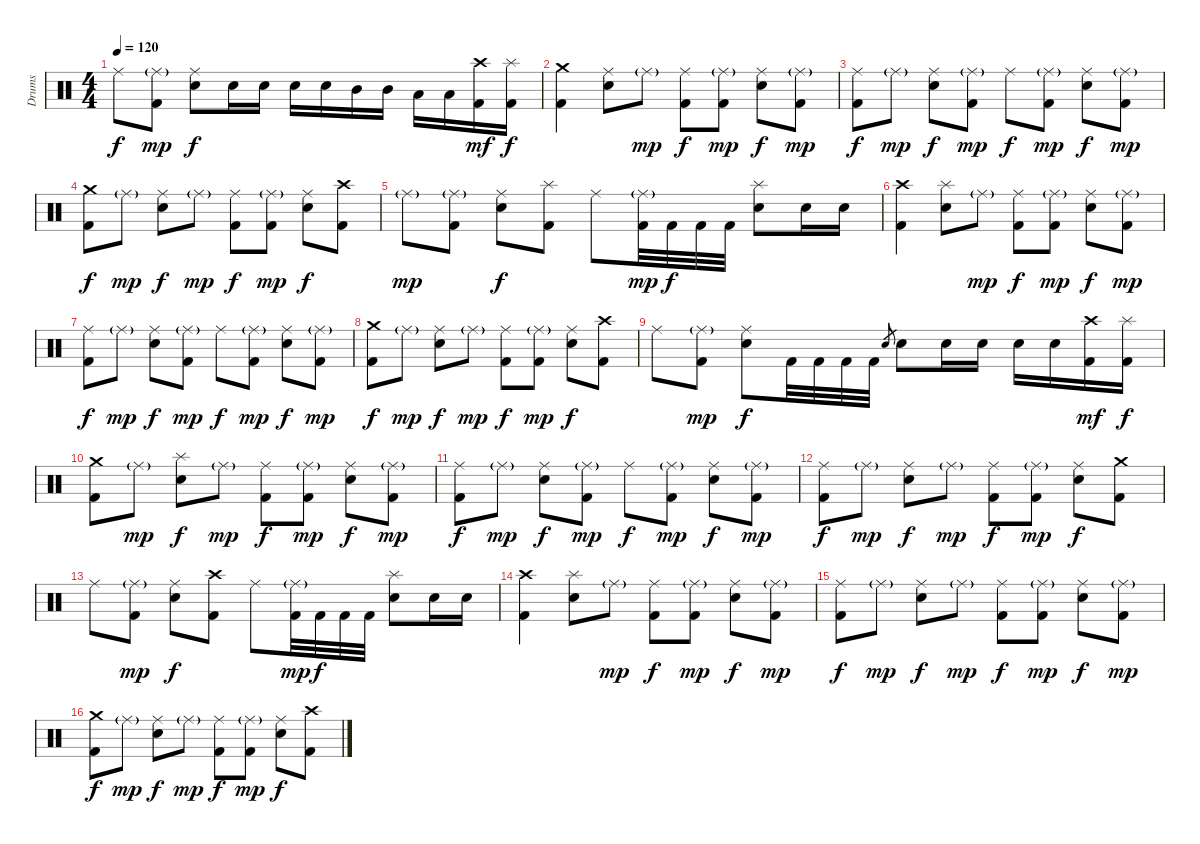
\track ("Drums" "Drums") {instrument percussion}
\staff {score}
\articulation defaults
\ts (4 4)
\tempo 120
\clef neutral
\ks c "Ride (middle)".8{dy f}
("Ride (middle)"{g} "Kick (hit) 2").8{dy mp} ("Ride (middle)" "Snare (hit) 2").8{dy f} "Snare (hit) 2".16 "Snare (hit) 2".16 "Snare (hit) 2".16 "Snare (hit) 2".16 "Mid Tom (hit)".16 "Mid Tom (hit)".16 "Low Tom (hit)".16 "Low Tom (hit)".16 ("Crash high (hit)" "Kick (hit) 2").16{dy mf} ("Splash (hit)" "Kick (hit) 2").16{dy f} |
("Crash medium (hit)" "Kick (hit) 2").4 ("Ride (middle)" "Snare (hit) 2").8 "Ride (middle)"{g}.8{dy mp} ("Ride (middle)" "Kick (hit) 2").8{dy f} ("Ride (middle)"{g} "Kick (hit) 2").8{dy mp} ("Ride (middle)" "Snare (hit) 2").8{dy f} ("Ride (middle)"{g} "Kick (hit) 2").8{dy mp} |
("Ride (middle)" "Kick (hit) 2").8{dy f} "Ride (middle)"{g}.8{dy mp} ("Ride (middle)" "Snare (hit) 2").8{dy f} ("Ride (middle)"{g} "Kick (hit) 2").8{dy mp} "Ride (middle)".8{dy f} ("Ride (middle)"{g} "Kick (hit) 2").8{dy mp} ("Ride (middle)" "Snare (hit) 2").8{dy f} ("Ride (middle)"{g} "Kick (hit) 2").8{dy mp} |
("Crash medium (hit)" "Kick (hit) 2").8{dy f} "Ride (middle)"{g}.8{dy mp} ("Ride (middle)" "Snare (hit) 2").8{dy f} "Ride (middle)"{g}.8{dy mp} ("Ride (middle)" "Kick (hit) 2").8{dy f} ("Ride (middle)"{g} "Kick (hit) 2").8{dy mp} ("Ride (middle)" "Snare (hit) 2").8{dy f} ("Crash high (hit)" "Kick (hit) 2").8 |
"Ride (middle)"{g}.8{dy mp} ("Ride (middle)"{g} "Kick (hit) 2").8 ("Ride (middle)" "Snare (hit) 2").8{dy f} ("Splash (hit)" "Kick (hit) 2").8 "Ride (middle)".8 ("Ride (middle)"{g} "Kick (hit) 2").32{dy mp} "Kick (hit) 2".32{dy f} "Kick (hit) 2".32 "Kick (hit) 2".32 ("Splash (hit)" "Snare (hit) 2").8 "Snare (hit) 2".16 "Snare (hit) 2".16 |
("Crash high (hit)" "Kick (hit) 2").4 ("Splash (hit)" "Snare (hit) 2").8 "Ride (middle)"{g}.8{dy mp} ("Ride (middle)" "Kick (hit) 2").8{dy f} ("Ride (middle)"{g} "Kick (hit) 2").8{dy mp} ("Ride (middle)" "Snare (hit) 2").8{dy f} ("Ride (middle)"{g} "Kick (hit) 2").8{dy mp} |
("Ride (middle)" "Kick (hit) 2").8{dy f} "Ride (middle)"{g}.8{dy mp} ("Ride (middle)" "Snare (hit) 2").8{dy f} ("Ride (middle)"{g} "Kick (hit) 2").8{dy mp} "Ride (middle)".8{dy f} ("Ride (middle)"{g} "Kick (hit) 2").8{dy mp} ("Ride (middle)" "Snare (hit) 2").8{dy f} ("Ride (middle)"{g} "Kick (hit) 2").8{dy mp} |
("Crash medium (hit)" "Kick (hit) 2").8{dy f} "Ride (middle)"{g}.8{dy mp} ("Ride (middle)" "Snare (hit) 2").8{dy f} "Ride (middle)"{g}.8{dy mp} ("Ride (middle)" "Kick (hit) 2").8{dy f} ("Ride (middle)"{g} "Kick (hit) 2").8{dy mp} ("Ride (middle)" "Snare (hit) 2").8{dy f} ("Crash high (hit)" "Kick (hit) 2").8 |
"Ride (middle)".8 ("Ride (middle)"{g} "Kick (hit) 2").8{dy mp} ("Ride (middle)" "Snare (hit) 2").8{dy f} "Kick (hit) 2".32 "Kick (hit) 2".32 "Kick (hit) 2".32 "Kick (hit) 2".32 "Snare (hit) 2".8{gr} "Snare (hit) 2".8 "Snare (hit) 2".16 "Snare (hit) 2".16 "Snare (hit) 2".16 "Snare (hit) 2".16 ("Crash high (hit)" "Kick (hit) 2").16{dy mf} ("Splash (hit)" "Kick (hit) 2").16{dy f} |
("Crash medium (hit)" "Kick (hit) 2").8 "Ride (middle)"{g}.8{dy mp} ("Splash (hit)" "Snare (hit) 2").8{dy f} "Ride (middle)"{g}.8{dy mp} ("Ride (middle)" "Kick (hit) 2").8{dy f} ("Ride (middle)"{g} "Kick (hit) 2").8{dy mp} ("Ride (middle)" "Snare (hit) 2").8{dy f} ("Ride (middle)"{g} "Kick (hit) 2").8{dy mp} |
("Ride (middle)" "Kick (hit) 2").8{dy f} "Ride (middle)"{g}.8{dy mp} ("Ride (middle)" "Snare (hit) 2").8{dy f} ("Ride (middle)"{g} "Kick (hit) 2").8{dy mp} "Ride (middle)".8{dy f} ("Ride (middle)"{g} "Kick (hit) 2").8{dy mp} ("Ride (middle)" "Snare (hit) 2").8{dy f} ("Ride (middle)"{g} "Kick (hit) 2").8{dy mp} |
("Ride (middle)" "Kick (hit) 2").8{dy f} "Ride (middle)"{g}.8{dy mp} ("Ride (middle)" "Snare (hit) 2").8{dy f} "Ride (middle)"{g}.8{dy mp} ("Ride (middle)" "Kick (hit) 2").8{dy f} ("Ride (middle)"{g} "Kick (hit) 2").8{dy mp} ("Ride (middle)" "Snare (hit) 2").8{dy f} ("Crash medium (hit)" "Kick (hit) 2").8 |
"Ride (middle)".8 ("Ride (middle)"{g} "Kick (hit) 2").8{dy mp} ("Ride (middle)" "Snare (hit) 2").8{dy f} ("Crash high (hit)" "Kick (hit) 2").8 "Ride (middle)".8 ("Ride (middle)"{g} "Kick (hit) 2").32{dy mp} "Kick (hit) 2".32{dy f} "Kick (hit) 2".32 "Kick (hit) 2".32 ("Splash (hit)" "Snare (hit) 2").8 "Snare (hit) 2".16 "Snare (hit) 2".16 |
("Crash high (hit)" "Kick (hit) 2").4 ("Splash (hit)" "Snare (hit) 2").8 "Ride (middle)"{g}.8{dy mp} ("Ride (middle)" "Kick (hit) 2").8{dy f} ("Ride (middle)"{g} "Kick (hit) 2").8{dy mp} ("Ride (middle)" "Snare (hit) 2").8{dy f} ("Ride (middle)"{g} "Kick (hit) 2").8{dy mp} |
("Ride (middle)" "Kick (hit) 2").8{dy f} "Ride (middle)"{g}.8{dy mp} ("Ride (middle)" "Snare (hit) 2").8{dy f} "Ride (middle)"{g}.8{dy mp} ("Ride (middle)" "Kick (hit) 2").8{dy f} ("Ride (middle)"{g} "Kick (hit) 2").8{dy mp} ("Ride (middle)" "Snare (hit) 2").8{dy f} ("Ride (middle)"{g} "Kick (hit) 2").8{dy mp} |
("Crash medium (hit)" "Kick (hit) 2").8{dy f} "Ride (middle)"{g}.8{dy mp} ("Ride (middle)" "Snare (hit) 2").8{dy f} "Ride (middle)"{g}.8{dy mp} ("Ride (middle)" "Kick (hit) 2").8{dy f} ("Ride (middle)"{g} "Kick (hit) 2").8{dy mp} ("Ride (middle)" "Snare (hit) 2").8{dy f} ("Crash high (hit)" "Kick (hit) 2").8
